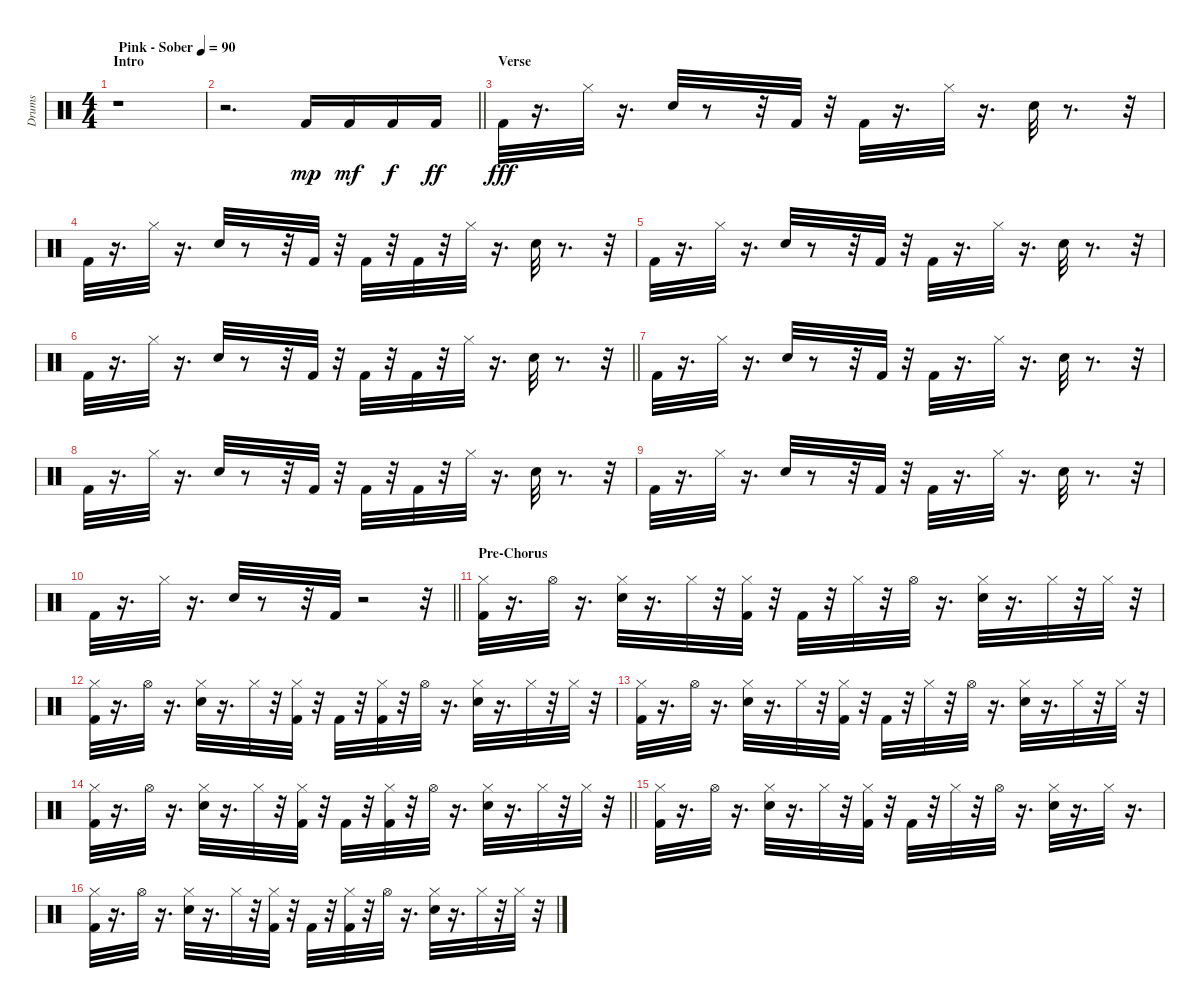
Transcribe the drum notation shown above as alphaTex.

\track ("Drums" "Drums") {instrument percussion}
\staff {score}
\articulation defaults
\ts (4 4)
\section ("" "Intro")
\tempo (90 "Pink - Sober")
\clef neutral
\ks c
r.1{dy mp} |
\barLineRight lightlight
r.2{d} "Kick (hit) 2".16 "Kick (hit) 2".16{dy mf} "Kick (hit) 2".16{dy f} "Kick (hit) 2".16{dy ff} |
\section ("" "Verse")
"Kick (hit) 2".32{dy fff} r.16{d} "Hi-Hat (closed)".32 r.16{d} "Snare (hit) 2".32 r.8 r.32 "Kick (hit) 2".32 r.32 "Kick (hit) 2".32 r.16{d} "Hi-Hat (closed)".32 r.16{d} "Snare (hit) 2".32 r.8{d} r.32 |
"Kick (hit) 2".32 r.16{d} "Hi-Hat (closed)".32 r.16{d} "Snare (hit) 2".32 r.8 r.32 "Kick (hit) 2".32 r.32 "Kick (hit) 2".32 r.32 "Kick (hit) 2".32 r.32 "Hi-Hat (closed)".32 r.16{d} "Snare (hit) 2".32 r.8{d} r.32 |
"Kick (hit) 2".32 r.16{d} "Hi-Hat (closed)".32 r.16{d} "Snare (hit) 2".32 r.8 r.32 "Kick (hit) 2".32 r.32 "Kick (hit) 2".32 r.16{d} "Hi-Hat (closed)".32 r.16{d} "Snare (hit) 2".32 r.8{d} r.32 |
\barLineRight lightlight "Kick (hit) 2".32
r.16{d} "Hi-Hat (closed)".32 r.16{d} "Snare (hit) 2".32 r.8 r.32 "Kick (hit) 2".32 r.32 "Kick (hit) 2".32 r.32 "Kick (hit) 2".32 r.32 "Hi-Hat (closed)".32 r.16{d} "Snare (hit) 2".32 r.8{d} r.32 |
"Kick (hit) 2".32 r.16{d} "Hi-Hat (closed)".32 r.16{d} "Snare (hit) 2".32 r.8 r.32 "Kick (hit) 2".32 r.32 "Kick (hit) 2".32 r.16{d} "Hi-Hat (closed)".32 r.16{d} "Snare (hit) 2".32 r.8{d} r.32 |
"Kick (hit) 2".32 r.16{d} "Hi-Hat (closed)".32 r.16{d} "Snare (hit) 2".32 r.8 r.32 "Kick (hit) 2".32 r.32 "Kick (hit) 2".32 r.32 "Kick (hit) 2".32 r.32 "Hi-Hat (closed)".32 r.16{d} "Snare (hit) 2".32 r.8{d} r.32 |
"Kick (hit) 2".32 r.16{d} "Hi-Hat (closed)".32 r.16{d} "Snare (hit) 2".32 r.8 r.32 "Kick (hit) 2".32 r.32 "Kick (hit) 2".32 r.16{d} "Hi-Hat (closed)".32 r.16{d} "Snare (hit) 2".32 r.8{d} r.32 |
\barLineRight lightlight "Kick (hit) 2".32
r.16{d} "Hi-Hat (closed)".32 r.16{d} "Snare (hit) 2".32 r.8 r.32 "Kick (hit) 2".32 r.2 r.32 |
\section ("" "Pre-Chorus")
("Kick (hit) 2" "Hi-Hat (closed)").32 r.16{d} "Hi-Hat (open)".32 r.16{d} ("Snare (hit) 2" "Hi-Hat (closed)").32 r.16{d} "Hi-Hat (closed)".32 r.32 ("Hi-Hat (closed)" "Kick (hit) 2").32 r.32 "Kick (hit) 2".32 r.32 "Hi-Hat (closed)".32 r.32 "Hi-Hat (open)".32 r.16{d} ("Hi-Hat (closed)" "Snare (hit) 2").32 r.16{d} "Hi-Hat (closed)".32 r.32 "Hi-Hat (closed)".32 r.32 |
("Kick (hit) 2" "Hi-Hat (closed)").32 r.16{d} "Hi-Hat (open)".32 r.16{d} ("Snare (hit) 2" "Hi-Hat (closed)").32 r.16{d} "Hi-Hat (closed)".32 r.32 ("Hi-Hat (closed)" "Kick (hit) 2").32 r.32 "Kick (hit) 2".32 r.32 ("Hi-Hat (closed)" "Kick (hit) 2").32 r.32 "Hi-Hat (open)".32 r.16{d} ("Snare (hit) 2" "Hi-Hat (closed)").32 r.16{d} "Hi-Hat (closed)".32 r.32 "Hi-Hat (closed)".32 r.32 |
("Kick (hit) 2" "Hi-Hat (closed)").32 r.16{d} "Hi-Hat (open)".32 r.16{d} ("Snare (hit) 2" "Hi-Hat (closed)").32 r.16{d} "Hi-Hat (closed)".32 r.32 ("Hi-Hat (closed)" "Kick (hit) 2").32 r.32 "Kick (hit) 2".32 r.32 "Hi-Hat (closed)".32 r.32 "Hi-Hat (open)".32 r.16{d} ("Snare (hit) 2" "Hi-Hat (closed)").32 r.16{d} "Hi-Hat (closed)".32 r.32 "Hi-Hat (closed)".32 r.32 |
\barLineRight lightlight
("Kick (hit) 2" "Hi-Hat (closed)").32 r.16{d} "Hi-Hat (open)".32 r.16{d} ("Hi-Hat (closed)" "Snare (hit) 2").32 r.16{d} "Hi-Hat (closed)".32 r.32 ("Hi-Hat (closed)" "Kick (hit) 2").32 r.32 "Kick (hit) 2".32 r.32 ("Kick (hit) 2" "Hi-Hat (closed)").32 r.32 "Hi-Hat (open)".32 r.16{d} ("Hi-Hat (closed)" "Snare (hit) 2").32 r.16{d} "Hi-Hat (closed)".32 r.32 "Hi-Hat (closed)".32 r.32 |
("Kick (hit) 2" "Hi-Hat (closed)").32 r.16{d} "Hi-Hat (open)".32 r.16{d} ("Hi-Hat (closed)" "Snare (hit) 2").32 r.16{d} "Hi-Hat (closed)".32 r.32 ("Kick (hit) 2" "Hi-Hat (closed)").32 r.32 "Kick (hit) 2".32 r.32 "Hi-Hat (closed)".32 r.32 "Hi-Hat (open)".32 r.16{d} ("Snare (hit) 2" "Hi-Hat (closed)").32 r.16{d} "Hi-Hat (closed)".32 r.16{d} |
("Kick (hit) 2" "Hi-Hat (closed)").32 r.16{d} "Hi-Hat (open)".32 r.16{d} ("Snare (hit) 2" "Hi-Hat (closed)").32 r.16{d} "Hi-Hat (closed)".32 r.32 ("Kick (hit) 2" "Hi-Hat (closed)").32 r.32 "Kick (hit) 2".32 r.32 ("Hi-Hat (closed)" "Kick (hit) 2").32 r.32 "Hi-Hat (open)".32 r.16{d} ("Hi-Hat (closed)" "Snare (hit) 2").32 r.16{d} "Hi-Hat (closed)".32 r.32 "Hi-Hat (closed)".32 r.32
